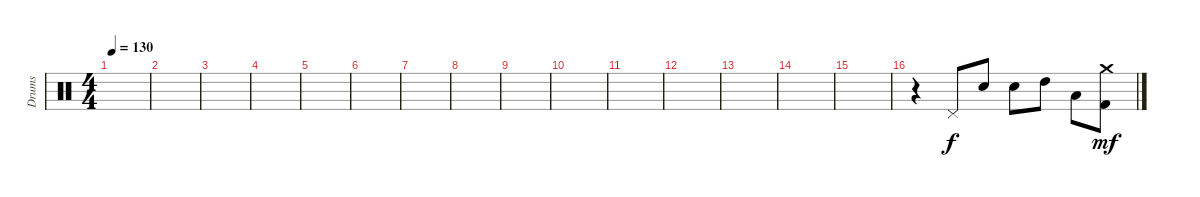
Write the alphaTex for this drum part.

\track ("Drums" "Drums") {instrument percussion}
\staff {score}
\articulation defaults
\ts (4 4)
\tempo 130
\clef neutral
\ks c
|
|
|
|
|
|
|
|
|
|
|
|
|
|
|
r.4{volume 11} "Pedal Hi-Hat (hit)".8{dy f} "Electric Snare (hit)".8 "Electric Snare (hit)".8 "High Tom (hit)".8 "Low Tom (hit)".8 ("Crash medium (hit)" "Kick (hit) 2").8{dy mf}
